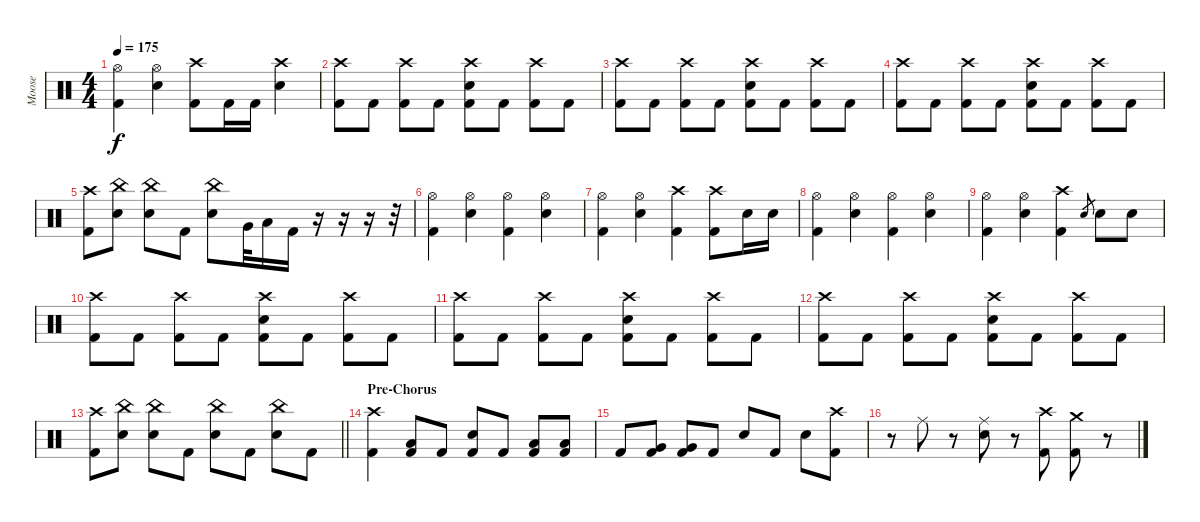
\track ("Moose" "Moose") {instrument percussion}
\staff {score}
\articulation defaults
\ts (4 4)
\tempo 175
\clef neutral
\ks c
("Hi-Hat (open)" "Kick (hit) 2").4{dy f} ("Hi-Hat (open)" "Electric Snare (hit)").4 ("Crash high (hit)" "Kick (hit) 2").8 "Kick (hit) 2".16 "Kick (hit) 2".16 ("Crash high (hit)" "Electric Snare (hit)").4 |
("Crash high (hit)" "Kick (hit) 2").8 "Kick (hit) 2".8 ("Crash high (hit)" "Kick (hit) 2").8 "Kick (hit) 2".8 ("Crash high (hit)" "Electric Snare (hit)" "Kick (hit) 2").8 "Kick (hit) 2".8 ("Crash high (hit)" "Kick (hit) 2").8 "Kick (hit) 2".8 |
("Crash high (hit)" "Kick (hit) 2").8 "Kick (hit) 2".8 ("Crash high (hit)" "Kick (hit) 2").8 "Kick (hit) 2".8 ("Crash high (hit)" "Electric Snare (hit)" "Kick (hit) 2").8 "Kick (hit) 2".8 ("Crash high (hit)" "Kick (hit) 2").8 "Kick (hit) 2".8 |
("Crash high (hit)" "Kick (hit) 2").8 "Kick (hit) 2".8 ("Crash high (hit)" "Kick (hit) 2").8 "Kick (hit) 2".8 ("Crash high (hit)" "Electric Snare (hit)" "Kick (hit) 2").8 "Kick (hit) 2".8 ("Crash high (hit)" "Kick (hit) 2").8 "Kick (hit) 2".8 |
("Crash high (hit)" "Kick (hit) 2").8 ("China (hit)" "Electric Snare (hit)").8 ("China (hit)" "Electric Snare (hit)").8 "Kick (hit) 2".8 ("China (hit)" "Electric Snare (hit)").8 "Very Low Tom (hit)".32 "Low Floor Tom (hit)".16 "Kick (hit) 2".16 r.16 r.16 r.16 r.32 |
("Hi-Hat (open)" "Kick (hit) 2").4 ("Hi-Hat (open)" "Electric Snare (hit)").4 ("Hi-Hat (open)" "Kick (hit) 2").4 ("Hi-Hat (open)" "Electric Snare (hit)").4 |
("Hi-Hat (open)" "Kick (hit) 2").4 ("Hi-Hat (open)" "Electric Snare (hit)").4 ("Crash high (hit)" "Kick (hit) 2").4 ("Crash high (hit)" "Kick (hit) 2").8 "Electric Snare (hit)".16 "Electric Snare (hit)".16 |
("Hi-Hat (open)" "Kick (hit) 2").4 ("Hi-Hat (open)" "Electric Snare (hit)").4 ("Hi-Hat (open)" "Kick (hit) 2").4 ("Hi-Hat (open)" "Electric Snare (hit)").4 |
("Hi-Hat (open)" "Kick (hit) 2").4 ("Hi-Hat (open)" "Electric Snare (hit)").4 ("Crash high (hit)" "Kick (hit) 2").4 "Electric Snare (hit)".8{gr} "Electric Snare (hit)".8 "Electric Snare (hit)".8 |
("Crash high (hit)" "Kick (hit) 2").8 "Kick (hit) 2".8 ("Crash high (hit)" "Kick (hit) 2").8 "Kick (hit) 2".8 ("Crash high (hit)" "Electric Snare (hit)" "Kick (hit) 2").8 "Kick (hit) 2".8 ("Crash high (hit)" "Kick (hit) 2").8 "Kick (hit) 2".8 |
("Crash high (hit)" "Kick (hit) 2").8 "Kick (hit) 2".8 ("Crash high (hit)" "Kick (hit) 2").8 "Kick (hit) 2".8 ("Crash high (hit)" "Electric Snare (hit)" "Kick (hit) 2").8 "Kick (hit) 2".8 ("Crash high (hit)" "Kick (hit) 2").8 "Kick (hit) 2".8 |
("Crash high (hit)" "Kick (hit) 2").8 "Kick (hit) 2".8 ("Crash high (hit)" "Kick (hit) 2").8 "Kick (hit) 2".8 ("Crash high (hit)" "Electric Snare (hit)" "Kick (hit) 2").8 "Kick (hit) 2".8 ("Crash high (hit)" "Kick (hit) 2").8 "Kick (hit) 2".8 |
\barLineRight lightlight
("Crash high (hit)" "Kick (hit) 2").8 ("China (hit)" "Electric Snare (hit)").8 ("China (hit)" "Electric Snare (hit)").8 "Kick (hit) 2".8 ("China (hit)" "Electric Snare (hit)").8 "Kick (hit) 2".8 ("China (hit)" "Electric Snare (hit)").8 "Kick (hit) 2".8 |
\section ("" "Pre-Chorus")
("Crash high (hit)" "Kick (hit) 2").4 ("Low Tom (hit)" "Kick (hit) 2").8 "Kick (hit) 2".8 ("Electric Snare (hit)" "Kick (hit) 2").8 "Kick (hit) 2".8 ("Low Tom (hit)" "Kick (hit) 2").8 ("Low Tom (hit)" "Kick (hit) 2").8 |
"Kick (hit) 2".8 ("Very Low Tom (hit)" "Kick (hit) 2").8 ("Very Low Tom (hit)" "Kick (hit) 2").8 "Kick (hit) 2".8 "Electric Snare (hit)".8 "Kick (hit) 2".8 "Electric Snare (hit)".8 ("Crash high (hit)" "Kick (hit) 2").8 |
r.8 "Ride (middle)".8 r.8 ("Ride (middle)" "Electric Snare (hit)").8 r.8 ("Crash high (hit)" "Kick (hit) 2").8 ("Crash medium (hit)" "Kick (hit) 2").8 r.8
